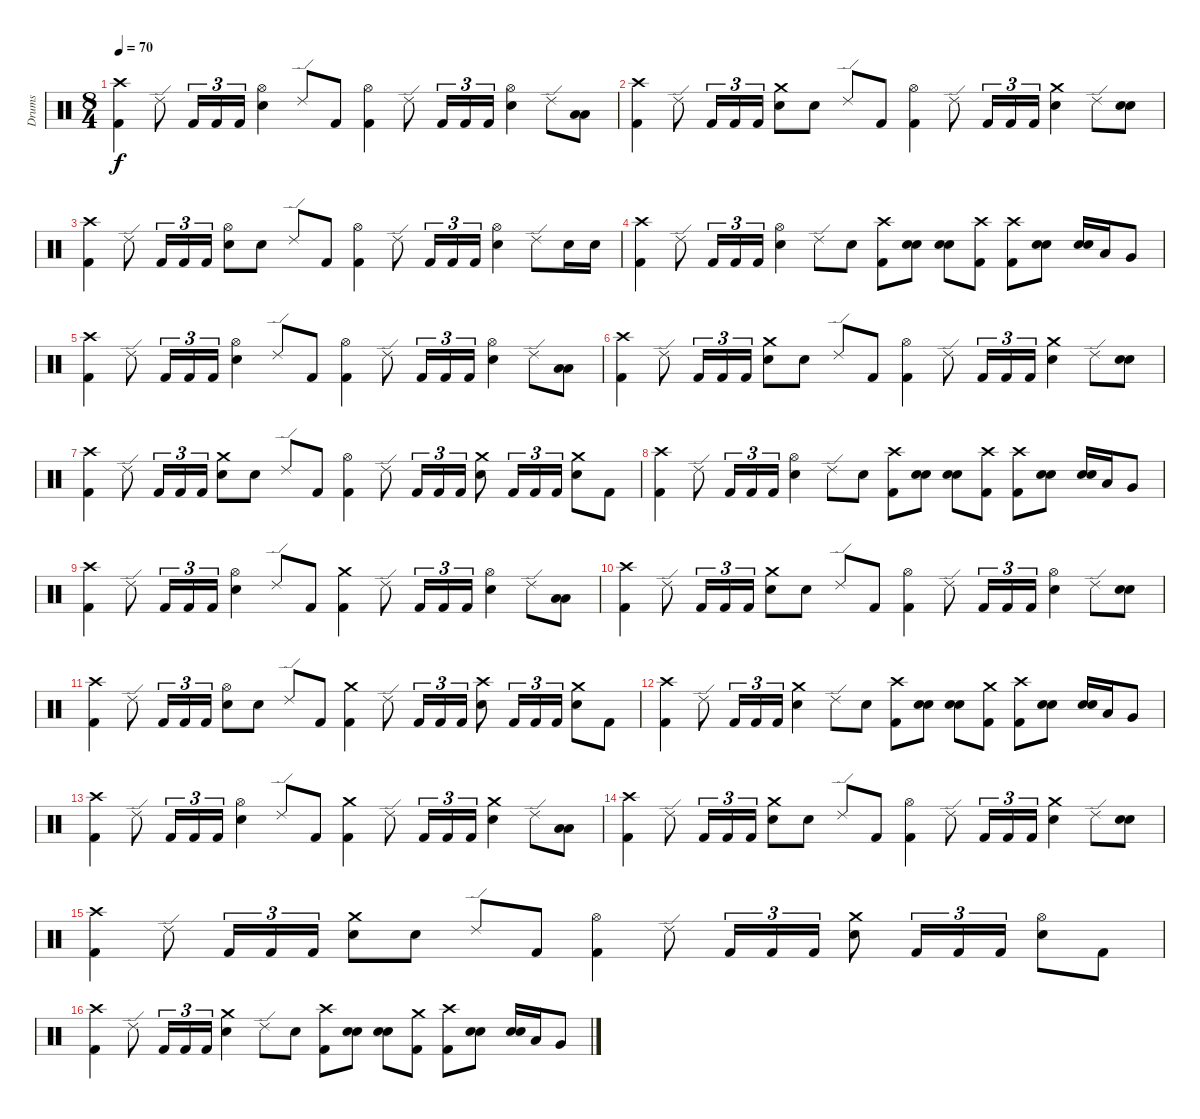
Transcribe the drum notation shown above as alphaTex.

\track ("Drums" "Drums") {instrument percussion}
\staff {score}
\articulation defaults
\ts (8 4)
\tempo 70
\clef neutral
\ks c
("Crash high (hit)" "Kick (hit) 2").4{dy f} "Ride (edge) 2".8 "Kick (hit) 2".16{tu (3 2)} "Kick (hit) 2".16{tu (3 2)} "Kick (hit) 2".16{tu (3 2)} ("Hi-Hat (open)" "Electric Snare (hit)").4 "Ride (edge) 2".8 "Kick (hit) 2".8 ("Hi-Hat (open)" "Kick (hit) 2").4 "Ride (edge) 2".8 "Kick (hit) 2".16{tu (3 2)} "Kick (hit) 2".16{tu (3 2)} "Kick (hit) 2".16{tu (3 2)} ("Hi-Hat (open)" "Electric Snare (hit)").4 "Ride (edge) 2".8 ("Low Tom (hit)" "Low Tom (hit)").8{bu 60} |
("Crash high (hit)" "Kick (hit) 2").4 "Ride (edge) 2".8 "Kick (hit) 2".16{tu (3 2)} "Kick (hit) 2".16{tu (3 2)} "Kick (hit) 2".16{tu (3 2)} ("Crash medium (hit)" "Electric Snare (hit)").8 "Electric Snare (hit)".8 "Ride (edge) 2".8 "Kick (hit) 2".8 ("Hi-Hat (open)" "Kick (hit) 2").4 "Ride (edge) 2".8 "Kick (hit) 2".16{tu (3 2)} "Kick (hit) 2".16{tu (3 2)} "Kick (hit) 2".16{tu (3 2)} ("Crash medium (hit)" "Electric Snare (hit)").4 "Ride (edge) 2".8 ("Electric Snare (hit)" "Electric Snare (hit)").8{bu 60} |
("Crash high (hit)" "Kick (hit) 2").4 "Ride (edge) 2".8 "Kick (hit) 2".16{tu (3 2)} "Kick (hit) 2".16{tu (3 2)} "Kick (hit) 2".16{tu (3 2)} ("Hi-Hat (open)" "Electric Snare (hit)").8 "Electric Snare (hit)".8 "Ride (edge) 2".8 "Kick (hit) 2".8 ("Hi-Hat (open)" "Kick (hit) 2").4 "Ride (edge) 2".8 "Kick (hit) 2".16{tu (3 2)} "Kick (hit) 2".16{tu (3 2)} "Kick (hit) 2".16{tu (3 2)} ("Hi-Hat (open)" "Electric Snare (hit)").4 "Ride (edge) 2".8 "Electric Snare (hit)".16 "Electric Snare (hit)".16 |
("Crash high (hit)" "Kick (hit) 2").4 "Ride (edge) 2".8 "Kick (hit) 2".16{tu (3 2)} "Kick (hit) 2".16{tu (3 2)} "Kick (hit) 2".16{tu (3 2)} ("Hi-Hat (open)" "Electric Snare (hit)").4 "Ride (edge) 2".8 "Electric Snare (hit)".8 ("Crash high (hit)" "Kick (hit) 2").8 ("Electric Snare (hit)" "Electric Snare (hit)").8{bu 60} ("Electric Snare (hit)" "Electric Snare (hit)").8{bu 60} ("Crash high (hit)" "Kick (hit) 2").8 ("Crash high (hit)" "Kick (hit) 2").8 ("Electric Snare (hit)" "Electric Snare (hit)").8{bu 60} ("Electric Snare (hit)" "Electric Snare (hit)").16{bu 60} "Low Tom (hit)".16 "Very Low Tom (hit)".8 |
("Crash high (hit)" "Kick (hit) 2").4 "Ride (edge) 2".8 "Kick (hit) 2".16{tu (3 2)} "Kick (hit) 2".16{tu (3 2)} "Kick (hit) 2".16{tu (3 2)} ("Hi-Hat (open)" "Electric Snare (hit)").4 "Ride (edge) 2".8 "Kick (hit) 2".8 ("Hi-Hat (open)" "Kick (hit) 2").4 "Ride (edge) 2".8 "Kick (hit) 2".16{tu (3 2)} "Kick (hit) 2".16{tu (3 2)} "Kick (hit) 2".16{tu (3 2)} ("Hi-Hat (open)" "Electric Snare (hit)").4 "Ride (edge) 2".8 ("Low Tom (hit)" "Low Tom (hit)").8{bu 60} |
("Crash high (hit)" "Kick (hit) 2").4 "Ride (edge) 2".8 "Kick (hit) 2".16{tu (3 2)} "Kick (hit) 2".16{tu (3 2)} "Kick (hit) 2".16{tu (3 2)} ("Crash medium (hit)" "Electric Snare (hit)").8 "Electric Snare (hit)".8 "Ride (edge) 2".8 "Kick (hit) 2".8 ("Hi-Hat (open)" "Kick (hit) 2").4 "Ride (edge) 2".8 "Kick (hit) 2".16{tu (3 2)} "Kick (hit) 2".16{tu (3 2)} "Kick (hit) 2".16{tu (3 2)} ("Crash medium (hit)" "Electric Snare (hit)").4 "Ride (edge) 2".8 ("Electric Snare (hit)" "Electric Snare (hit)").8{bu 60} |
("Crash high (hit)" "Kick (hit) 2").4 "Ride (edge) 2".8 "Kick (hit) 2".16{tu (3 2)} "Kick (hit) 2".16{tu (3 2)} "Kick (hit) 2".16{tu (3 2)} ("Crash medium (hit)" "Electric Snare (hit)").8 "Electric Snare (hit)".8 "Ride (edge) 2".8 "Kick (hit) 2".8 ("Hi-Hat (open)" "Kick (hit) 2").4 "Ride (edge) 2".8 "Kick (hit) 2".16{tu (3 2)} "Kick (hit) 2".16{tu (3 2)} "Kick (hit) 2".16{tu (3 2)} ("Crash medium (hit)" "Electric Snare (hit)").8 "Kick (hit) 2".16{tu (3 2)} "Kick (hit) 2".16{tu (3 2)} "Kick (hit) 2".16{tu (3 2)} ("Crash medium (hit)" "Electric Snare (hit)").8 "Kick (hit) 2".8 |
("Crash high (hit)" "Kick (hit) 2").4 "Ride (edge) 2".8 "Kick (hit) 2".16{tu (3 2)} "Kick (hit) 2".16{tu (3 2)} "Kick (hit) 2".16{tu (3 2)} ("Hi-Hat (open)" "Electric Snare (hit)").4 "Ride (edge) 2".8 "Electric Snare (hit)".8 ("Crash high (hit)" "Kick (hit) 2").8 ("Electric Snare (hit)" "Electric Snare (hit)").8{bu 60} ("Electric Snare (hit)" "Electric Snare (hit)").8{bu 60} ("Crash high (hit)" "Kick (hit) 2").8 ("Crash high (hit)" "Kick (hit) 2").8 ("Electric Snare (hit)" "Electric Snare (hit)").8{bu 60} ("Electric Snare (hit)" "Electric Snare (hit)").16{bu 60} "Low Tom (hit)".16 "Very Low Tom (hit)".8 |
("Crash high (hit)" "Kick (hit) 2").4 "Ride (edge) 2".8 "Kick (hit) 2".16{tu (3 2)} "Kick (hit) 2".16{tu (3 2)} "Kick (hit) 2".16{tu (3 2)} ("Hi-Hat (open)" "Electric Snare (hit)").4 "Ride (edge) 2".8 "Kick (hit) 2".8 ("Crash medium (hit)" "Kick (hit) 2").4 "Ride (edge) 2".8 "Kick (hit) 2".16{tu (3 2)} "Kick (hit) 2".16{tu (3 2)} "Kick (hit) 2".16{tu (3 2)} ("Hi-Hat (open)" "Electric Snare (hit)").4 "Ride (edge) 2".8 ("Low Tom (hit)" "Low Tom (hit)").8{bu 60} |
("Crash high (hit)" "Kick (hit) 2").4 "Ride (edge) 2".8 "Kick (hit) 2".16{tu (3 2)} "Kick (hit) 2".16{tu (3 2)} "Kick (hit) 2".16{tu (3 2)} ("Crash medium (hit)" "Electric Snare (hit)").8 "Electric Snare (hit)".8 "Ride (edge) 2".8 "Kick (hit) 2".8 ("Hi-Hat (open)" "Kick (hit) 2").4 "Ride (edge) 2".8 "Kick (hit) 2".16{tu (3 2)} "Kick (hit) 2".16{tu (3 2)} "Kick (hit) 2".16{tu (3 2)} ("Hi-Hat (open)" "Electric Snare (hit)").4 "Ride (edge) 2".8 ("Electric Snare (hit)" "Electric Snare (hit)").8{bu 60} |
("Crash high (hit)" "Kick (hit) 2").4 "Ride (edge) 2".8 "Kick (hit) 2".16{tu (3 2)} "Kick (hit) 2".16{tu (3 2)} "Kick (hit) 2".16{tu (3 2)} ("Hi-Hat (open)" "Electric Snare (hit)").8 "Electric Snare (hit)".8 "Ride (edge) 2".8 "Kick (hit) 2".8 ("Crash medium (hit)" "Kick (hit) 2").4 "Ride (edge) 2".8 "Kick (hit) 2".16{tu (3 2)} "Kick (hit) 2".16{tu (3 2)} "Kick (hit) 2".16{tu (3 2)} ("Crash high (hit)" "Electric Snare (hit)").8 "Kick (hit) 2".16{tu (3 2)} "Kick (hit) 2".16{tu (3 2)} "Kick (hit) 2".16{tu (3 2)} ("Crash medium (hit)" "Electric Snare (hit)").8 "Kick (hit) 2".8 |
("Crash high (hit)" "Kick (hit) 2").4 "Ride (edge) 2".8 "Kick (hit) 2".16{tu (3 2)} "Kick (hit) 2".16{tu (3 2)} "Kick (hit) 2".16{tu (3 2)} ("Crash medium (hit)" "Electric Snare (hit)").4 "Ride (edge) 2".8 "Electric Snare (hit)".8 ("Crash high (hit)" "Kick (hit) 2").8 ("Electric Snare (hit)" "Electric Snare (hit)").8{bu 60} ("Electric Snare (hit)" "Electric Snare (hit)").8{bu 60} ("Crash medium (hit)" "Kick (hit) 2").8 ("Crash high (hit)" "Kick (hit) 2").8 ("Electric Snare (hit)" "Electric Snare (hit)").8{bu 60} ("Electric Snare (hit)" "Electric Snare (hit)").16{bu 60} "Low Tom (hit)".16 "Very Low Tom (hit)".8 |
("Crash high (hit)" "Kick (hit) 2").4 "Ride (edge) 2".8 "Kick (hit) 2".16{tu (3 2)} "Kick (hit) 2".16{tu (3 2)} "Kick (hit) 2".16{tu (3 2)} ("Hi-Hat (open)" "Electric Snare (hit)").4 "Ride (edge) 2".8 "Kick (hit) 2".8 ("Crash medium (hit)" "Kick (hit) 2").4 "Ride (edge) 2".8 "Kick (hit) 2".16{tu (3 2)} "Kick (hit) 2".16{tu (3 2)} "Kick (hit) 2".16{tu (3 2)} ("Crash medium (hit)" "Electric Snare (hit)").4 "Ride (edge) 2".8 ("Low Tom (hit)" "Low Tom (hit)").8{bu 60} |
("Crash high (hit)" "Kick (hit) 2").4 "Ride (edge) 2".8 "Kick (hit) 2".16{tu (3 2)} "Kick (hit) 2".16{tu (3 2)} "Kick (hit) 2".16{tu (3 2)} ("Crash medium (hit)" "Electric Snare (hit)").8 "Electric Snare (hit)".8 "Ride (edge) 2".8 "Kick (hit) 2".8 ("Hi-Hat (open)" "Kick (hit) 2").4 "Ride (edge) 2".8 "Kick (hit) 2".16{tu (3 2)} "Kick (hit) 2".16{tu (3 2)} "Kick (hit) 2".16{tu (3 2)} ("Crash medium (hit)" "Electric Snare (hit)").4 "Ride (edge) 2".8 ("Electric Snare (hit)" "Electric Snare (hit)").8{bu 60} |
("Crash high (hit)" "Kick (hit) 2").4 "Ride (edge) 2".8 "Kick (hit) 2".16{tu (3 2)} "Kick (hit) 2".16{tu (3 2)} "Kick (hit) 2".16{tu (3 2)} ("Crash medium (hit)" "Electric Snare (hit)").8 "Electric Snare (hit)".8 "Ride (edge) 2".8 "Kick (hit) 2".8 ("Hi-Hat (open)" "Kick (hit) 2").4 "Ride (edge) 2".8 "Kick (hit) 2".16{tu (3 2)} "Kick (hit) 2".16{tu (3 2)} "Kick (hit) 2".16{tu (3 2)} ("Crash medium (hit)" "Electric Snare (hit)").8 "Kick (hit) 2".16{tu (3 2)} "Kick (hit) 2".16{tu (3 2)} "Kick (hit) 2".16{tu (3 2)} ("Hi-Hat (open)" "Electric Snare (hit)").8 "Kick (hit) 2".8 |
("Crash high (hit)" "Kick (hit) 2").4 "Ride (edge) 2".8 "Kick (hit) 2".16{tu (3 2)} "Kick (hit) 2".16{tu (3 2)} "Kick (hit) 2".16{tu (3 2)} ("Crash medium (hit)" "Electric Snare (hit)").4 "Ride (edge) 2".8 "Electric Snare (hit)".8 ("Crash high (hit)" "Kick (hit) 2").8 ("Electric Snare (hit)" "Electric Snare (hit)").8{bu 60} ("Electric Snare (hit)" "Electric Snare (hit)").8{bu 60} ("Crash medium (hit)" "Kick (hit) 2").8 ("Crash high (hit)" "Kick (hit) 2").8 ("Electric Snare (hit)" "Electric Snare (hit)").8{bu 60} ("Electric Snare (hit)" "Electric Snare (hit)").16{bu 60} "Low Tom (hit)".16 "Very Low Tom (hit)".8
